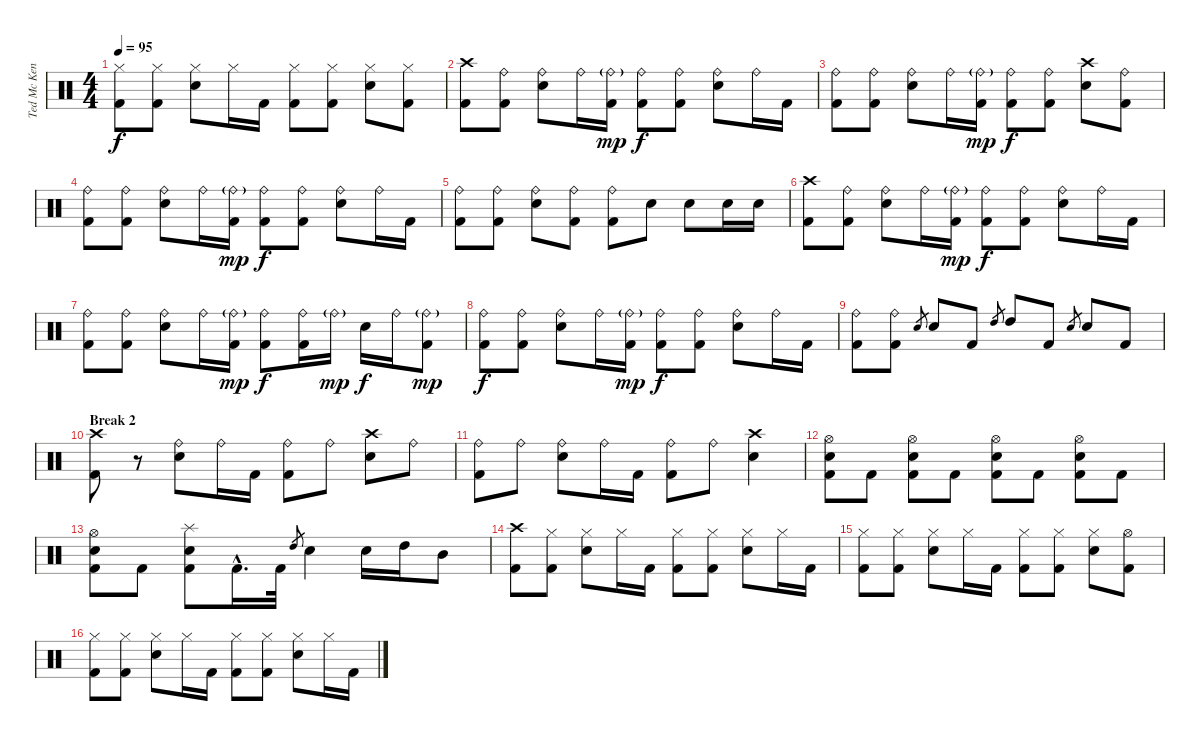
\track ("Ted Mc Kenna" "Ted Mc Ken") {instrument percussion}
\staff {score}
\articulation defaults
\ts (4 4)
\tempo 95
\clef neutral
\ks c
("Hi-Hat (closed)" "Kick (hit) 2").8{dy f} ("Hi-Hat (closed)" "Kick (hit) 2").8 ("Hi-Hat (closed)" "Snare (hit) 2").8 "Hi-Hat (closed)".16 "Kick (hit) 2".16 ("Hi-Hat (closed)" "Kick (hit) 2").8 ("Hi-Hat (closed)" "Kick (hit) 2").8 ("Hi-Hat (closed)" "Snare (hit) 2").8 ("Hi-Hat (closed)" "Kick (hit) 2").8 |
("Crash high (hit)" "Kick (hit) 2").8 ("Ride (bell)" "Kick (hit) 2").8 ("Ride (bell)" "Snare (hit) 2").8 "Ride (bell)".16 ("Ride (bell)"{g} "Kick (hit) 2").16{dy mp} ("Ride (bell)" "Kick (hit) 2").8{dy f} ("Ride (bell)" "Kick (hit) 2").8 ("Ride (bell)" "Snare (hit) 2").8 "Ride (bell)".16 "Kick (hit) 2".16 |
("Ride (bell)" "Kick (hit) 2").8 ("Ride (bell)" "Kick (hit) 2").8 ("Ride (bell)" "Snare (hit) 2").8 "Ride (bell)".16 ("Ride (bell)"{g} "Kick (hit) 2").16{dy mp} ("Ride (bell)" "Kick (hit) 2").8{dy f} ("Ride (bell)" "Kick (hit) 2").8 ("Crash high (hit)" "Snare (hit) 2").8 ("Ride (bell)" "Kick (hit) 2").8 |
("Ride (bell)" "Kick (hit) 2").8 ("Ride (bell)" "Kick (hit) 2").8 ("Ride (bell)" "Snare (hit) 2").8 "Ride (bell)".16 ("Ride (bell)"{g} "Kick (hit) 2").16{dy mp} ("Ride (bell)" "Kick (hit) 2").8{dy f} ("Ride (bell)" "Kick (hit) 2").8 ("Ride (bell)" "Snare (hit) 2").8 "Ride (bell)".16 "Kick (hit) 2".16 |
("Ride (bell)" "Kick (hit) 2").8 ("Ride (bell)" "Kick (hit) 2").8 ("Ride (bell)" "Snare (hit) 2").8 ("Ride (bell)" "Kick (hit) 2").8 ("Ride (bell)" "Kick (hit) 2").8 "Snare (hit) 2".8 "Snare (hit) 2".8 "Snare (hit) 2".16 "Snare (hit) 2".16 |
("Crash high (hit)" "Kick (hit) 2").8 ("Ride (bell)" "Kick (hit) 2").8 ("Ride (bell)" "Snare (hit) 2").8 "Ride (bell)".16 ("Ride (bell)"{g} "Kick (hit) 2").16{dy mp} ("Ride (bell)" "Kick (hit) 2").8{dy f} ("Ride (bell)" "Kick (hit) 2").8 ("Ride (bell)" "Snare (hit) 2").8 "Ride (bell)".16 "Kick (hit) 2".16 |
("Ride (bell)" "Kick (hit) 2").8 ("Ride (bell)" "Kick (hit) 2").8 ("Ride (bell)" "Snare (hit) 2").8 "Ride (bell)".16 ("Ride (bell)"{g} "Kick (hit) 2").16{dy mp} ("Ride (bell)" "Kick (hit) 2").8{dy f} ("Ride (bell)" "Kick (hit) 2").16 "Ride (bell)"{g}.16{dy mp} "Snare (hit) 2".16{dy f} "Ride (bell)".16 ("Ride (bell)"{g} "Kick (hit) 2").8{dy mp} |
("Ride (bell)" "Kick (hit) 2").8{dy f} ("Ride (bell)" "Kick (hit) 2").8 ("Ride (bell)" "Snare (hit) 2").8 "Ride (bell)".16 ("Ride (bell)"{g} "Kick (hit) 2").16{dy mp} ("Ride (bell)" "Kick (hit) 2").8{dy f} ("Ride (bell)" "Kick (hit) 2").8 ("Ride (bell)" "Snare (hit) 2").8 "Ride (bell)".16 "Kick (hit) 2".16 |
("Ride (bell)" "Kick (hit) 2").8 ("Ride (bell)" "Kick (hit) 2").8 "Snare (hit) 2".8{gr} "Snare (hit) 2".8 "Kick (hit) 2".8 "High Tom (hit)".8{gr} "High Tom (hit)".8 "Kick (hit) 2".8 "Snare (hit) 2".8{gr} "Snare (hit) 2".8 "Kick (hit) 2".8 |
\section ("" "Break 2")
("Crash high (hit)" "Kick (hit) 2").8 r.8 ("Ride (bell)" "Snare (hit) 2").8 "Ride (bell)".16 "Kick (hit) 2".16 ("Ride (bell)" "Kick (hit) 2").8 "Ride (bell)".8 ("Crash high (hit)" "Snare (hit) 2").8 "Ride (bell)".8 |
("Ride (bell)" "Kick (hit) 2").8 "Ride (bell)".8 ("Ride (bell)" "Snare (hit) 2").8 "Ride (bell)".16 "Kick (hit) 2".16 ("Ride (bell)" "Kick (hit) 2").8 "Ride (bell)".8 ("Crash high (hit)" "Snare (hit) 2").4 |
("Hi-Hat (open)" "Snare (hit) 2" "Kick (hit) 2").8 "Kick (hit) 2".8 ("Hi-Hat (open)" "Snare (hit) 2" "Kick (hit) 2").8 "Kick (hit) 2".8 ("Hi-Hat (open)" "Snare (hit) 2" "Kick (hit) 2").8 "Kick (hit) 2".8 ("Hi-Hat (open)" "Snare (hit) 2" "Kick (hit) 2").8 "Kick (hit) 2".8 |
("Hi-Hat (open)" "Snare (hit) 2" "Kick (hit) 2").8 "Kick (hit) 2".8 ("Splash (hit)" "Snare (hit) 2" "Kick (hit) 2").8 "Kick (hit) 2"{hac}.16{d} "Kick (hit) 2".32 "High Tom (hit)".8{gr} "Snare (hit) 2".4 "Snare (hit) 2".16 "High Tom (hit)".16 "Mid Tom (hit)".8 |
("Crash high (hit)" "Kick (hit) 2").8 ("Hi-Hat (closed)" "Kick (hit) 2").8 ("Hi-Hat (closed)" "Snare (hit) 2").8 "Hi-Hat (closed)".16 "Kick (hit) 2".16 ("Hi-Hat (closed)" "Kick (hit) 2").8 ("Hi-Hat (closed)" "Kick (hit) 2").8 ("Hi-Hat (closed)" "Snare (hit) 2").8 "Hi-Hat (closed)".16 "Kick (hit) 2".16 |
("Hi-Hat (closed)" "Kick (hit) 2").8 ("Hi-Hat (closed)" "Kick (hit) 2").8 ("Hi-Hat (closed)" "Snare (hit) 2").8 "Hi-Hat (closed)".16 "Kick (hit) 2".16 ("Hi-Hat (closed)" "Kick (hit) 2").8 ("Hi-Hat (closed)" "Kick (hit) 2").8 ("Hi-Hat (closed)" "Snare (hit) 2").8 ("Hi-Hat (open)" "Kick (hit) 2").8 |
("Hi-Hat (closed)" "Kick (hit) 2").8 ("Hi-Hat (closed)" "Kick (hit) 2").8 ("Hi-Hat (closed)" "Snare (hit) 2").8 "Hi-Hat (closed)".16 "Kick (hit) 2".16 ("Hi-Hat (closed)" "Kick (hit) 2").8 ("Hi-Hat (closed)" "Kick (hit) 2").8 ("Hi-Hat (closed)" "Snare (hit) 2").8 "Hi-Hat (closed)".16 "Kick (hit) 2".16
